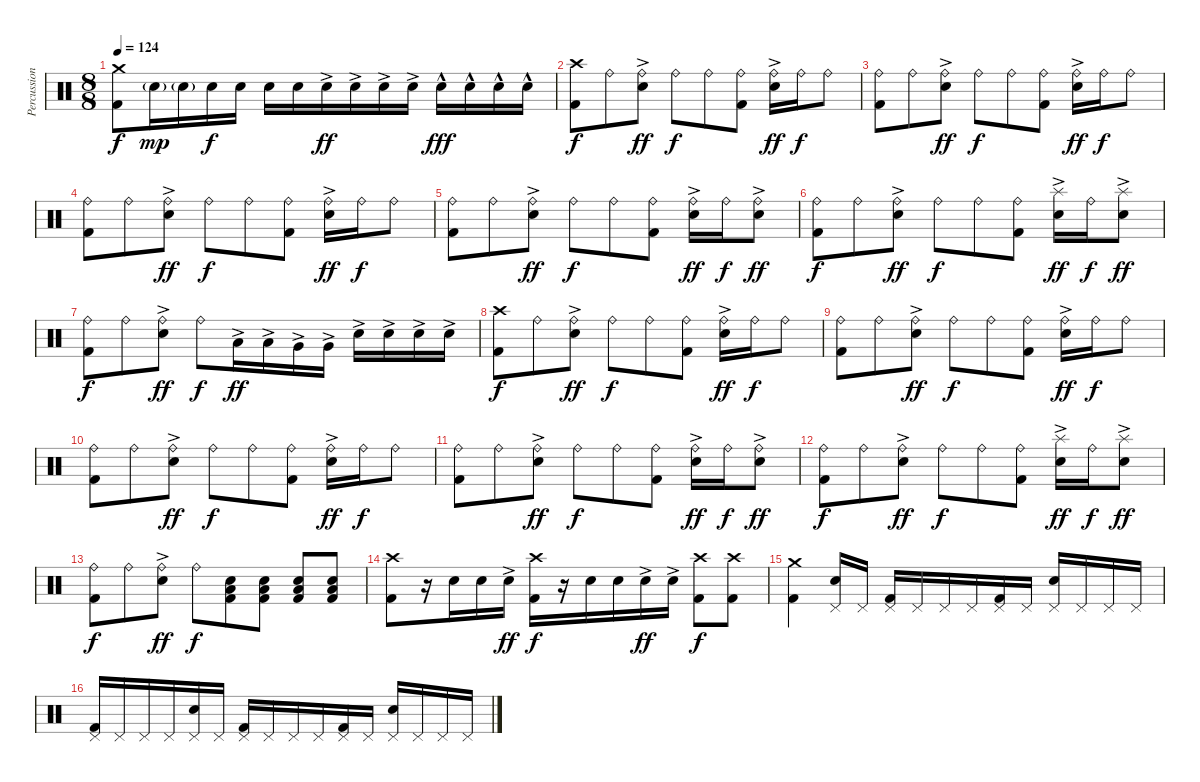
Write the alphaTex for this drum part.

\track ("Percussion" "Percussion") {instrument percussion}
\staff {score}
\articulation defaults
\ts (8 8)
\tempo 124
\clef neutral
\ks c
("Crash medium (hit)" "Kick (hit) 2").8{dy f} "Electric Snare (hit)"{g}.16{dy mp} "Electric Snare (hit)"{g}.16 "Electric Snare (hit)".16{dy f} "Electric Snare (hit)".16 "Electric Snare (hit)".16 "Electric Snare (hit)".16 "Electric Snare (hit)"{ac}.16{dy ff} "Electric Snare (hit)"{ac}.16 "Electric Snare (hit)"{ac}.16 "Electric Snare (hit)"{ac}.16 "Electric Snare (hit)"{hac}.16{dy fff} "Electric Snare (hit)"{hac}.16 "Electric Snare (hit)"{hac}.16 "Electric Snare (hit)"{hac}.16 |
("Crash high (hit)" "Kick (hit) 2").8{dy f} "Ride (bell)".8 ("Ride (bell)" "Electric Snare (hit)"{ac}).8{dy ff} "Ride (bell)".8{dy f} "Ride (bell)".8 ("Ride (bell)" "Kick (hit) 2").8 ("Ride (bell)" "Electric Snare (hit)"{ac}).16{dy ff} "Ride (bell)".16{dy f} "Ride (bell)".8 |
("Ride (bell)" "Kick (hit) 2").8 "Ride (bell)".8 ("Ride (bell)" "Electric Snare (hit)"{ac}).8{dy ff} "Ride (bell)".8{dy f} "Ride (bell)".8 ("Ride (bell)" "Kick (hit) 2").8 ("Ride (bell)" "Electric Snare (hit)"{ac}).16{dy ff} "Ride (bell)".16{dy f} "Ride (bell)".8 |
("Ride (bell)" "Kick (hit) 2").8 "Ride (bell)".8 ("Ride (bell)" "Electric Snare (hit)"{ac}).8{dy ff} "Ride (bell)".8{dy f} "Ride (bell)".8 ("Ride (bell)" "Kick (hit) 2").8 ("Ride (bell)" "Electric Snare (hit)"{ac}).16{dy ff} "Ride (bell)".16{dy f} "Ride (bell)".8 |
("Ride (bell)" "Kick (hit) 2").8 "Ride (bell)".8 ("Ride (bell)" "Electric Snare (hit)"{ac}).8{dy ff} "Ride (bell)".8{dy f} "Ride (bell)".8 ("Ride (bell)" "Kick (hit) 2").8 ("Ride (bell)" "Electric Snare (hit)"{ac}).16{dy ff} "Ride (bell)".16{dy f} ("Ride (bell)" "Electric Snare (hit)"{ac}).8{dy ff} |
("Ride (bell)" "Kick (hit) 2").8{dy f} "Ride (bell)".8 ("Ride (bell)" "Electric Snare (hit)"{ac}).8{dy ff} "Ride (bell)".8{dy f} "Ride (bell)".8 ("Ride (bell)" "Kick (hit) 2").8 ("Splash (hit)" "Electric Snare (hit)"{ac}).16{dy ff} "Ride (bell)".16{dy f} ("Splash (hit)" "Electric Snare (hit)"{ac}).8{dy ff} |
("Ride (bell)" "Kick (hit) 2").8{dy f} "Ride (bell)".8 ("Ride (bell)" "Electric Snare (hit)"{ac}).8{dy ff} "Ride (bell)".8{dy f} "Low Tom (hit)"{ac}.16{dy ff} "Low Tom (hit)"{ac}.16 "Very Low Tom (hit)"{ac}.16 "Very Low Tom (hit)"{ac}.16 "Electric Snare (hit)"{ac}.16 "Electric Snare (hit)"{ac}.16 "Electric Snare (hit)"{ac}.16 "Electric Snare (hit)"{ac}.16 |
("Crash high (hit)" "Kick (hit) 2").8{dy f} "Ride (bell)".8 ("Ride (bell)" "Electric Snare (hit)"{ac}).8{dy ff} "Ride (bell)".8{dy f} "Ride (bell)".8 ("Ride (bell)" "Kick (hit) 2").8 ("Ride (bell)" "Electric Snare (hit)"{ac}).16{dy ff} "Ride (bell)".16{dy f} "Ride (bell)".8 |
("Ride (bell)" "Kick (hit) 2").8 "Ride (bell)".8 ("Ride (bell)" "Electric Snare (hit)"{ac}).8{dy ff} "Ride (bell)".8{dy f} "Ride (bell)".8 ("Ride (bell)" "Kick (hit) 2").8 ("Ride (bell)" "Electric Snare (hit)"{ac}).16{dy ff} "Ride (bell)".16{dy f} "Ride (bell)".8 |
("Ride (bell)" "Kick (hit) 2").8 "Ride (bell)".8 ("Ride (bell)" "Electric Snare (hit)"{ac}).8{dy ff} "Ride (bell)".8{dy f} "Ride (bell)".8 ("Ride (bell)" "Kick (hit) 2").8 ("Ride (bell)" "Electric Snare (hit)"{ac}).16{dy ff} "Ride (bell)".16{dy f} "Ride (bell)".8 |
("Ride (bell)" "Kick (hit) 2").8 "Ride (bell)".8 ("Ride (bell)" "Electric Snare (hit)"{ac}).8{dy ff} "Ride (bell)".8{dy f} "Ride (bell)".8 ("Ride (bell)" "Kick (hit) 2").8 ("Ride (bell)" "Electric Snare (hit)"{ac}).16{dy ff} "Ride (bell)".16{dy f} ("Ride (bell)" "Electric Snare (hit)"{ac}).8{dy ff} |
("Ride (bell)" "Kick (hit) 2").8{dy f} "Ride (bell)".8 ("Ride (bell)" "Electric Snare (hit)"{ac}).8{dy ff} "Ride (bell)".8{dy f} "Ride (bell)".8 ("Ride (bell)" "Kick (hit) 2").8 ("Splash (hit)" "Electric Snare (hit)"{ac}).16{dy ff} "Ride (bell)".16{dy f} ("Splash (hit)" "Electric Snare (hit)"{ac}).8{dy ff} |
("Ride (bell)" "Kick (hit) 2").8{dy f} "Ride (bell)".8 ("Ride (bell)" "Electric Snare (hit)"{ac}).8{dy ff} "Ride (bell)".8{dy f} ("Low Floor Tom (hit)" "Electric Snare (hit)" "Kick (hit) 2").8 ("Low Floor Tom (hit)" "Electric Snare (hit)" "Kick (hit) 2").8 ("Low Floor Tom (hit)" "Electric Snare (hit)" "Kick (hit) 2").8 ("Low Floor Tom (hit)" "Electric Snare (hit)" "Kick (hit) 2").8 |
("Crash high (hit)" "Kick (hit) 2").8 r.16 "Electric Snare (hit)".16 "Electric Snare (hit)".16 "Electric Snare (hit)"{ac}.16{dy ff} ("Crash high (hit)" "Kick (hit) 2").16{dy f} r.16 "Electric Snare (hit)".16 "Electric Snare (hit)".16 "Electric Snare (hit)"{ac}.16{dy ff} "Electric Snare (hit)"{ac}.16 ("Crash high (hit)" "Kick (hit) 2").8{dy f} ("Crash high (hit)" "Kick (hit) 2").8 |
("Kick (hit) 2" "Crash medium (hit)").4 ("Electric Snare (hit)" "Pedal Hi-Hat (hit)").16 "Pedal Hi-Hat (hit)".16 ("Kick (hit) 2" "Pedal Hi-Hat (hit)").16 "Pedal Hi-Hat (hit)".16 "Pedal Hi-Hat (hit)".16 "Pedal Hi-Hat (hit)".16 ("Kick (hit) 2" "Pedal Hi-Hat (hit)").16 "Pedal Hi-Hat (hit)".16 ("Electric Snare (hit)" "Pedal Hi-Hat (hit)").16 "Pedal Hi-Hat (hit)".16 "Pedal Hi-Hat (hit)".16 "Pedal Hi-Hat (hit)".16 |
("Kick (hit) 2" "Pedal Hi-Hat (hit)").16 "Pedal Hi-Hat (hit)".16 "Pedal Hi-Hat (hit)".16 "Pedal Hi-Hat (hit)".16 ("Electric Snare (hit)" "Pedal Hi-Hat (hit)").16 "Pedal Hi-Hat (hit)".16 ("Kick (hit) 2" "Pedal Hi-Hat (hit)").16 "Pedal Hi-Hat (hit)".16 "Pedal Hi-Hat (hit)".16 "Pedal Hi-Hat (hit)".16 ("Kick (hit) 2" "Pedal Hi-Hat (hit)").16 "Pedal Hi-Hat (hit)".16 ("Electric Snare (hit)" "Pedal Hi-Hat (hit)").16 "Pedal Hi-Hat (hit)".16 "Pedal Hi-Hat (hit)".16 "Pedal Hi-Hat (hit)".16
